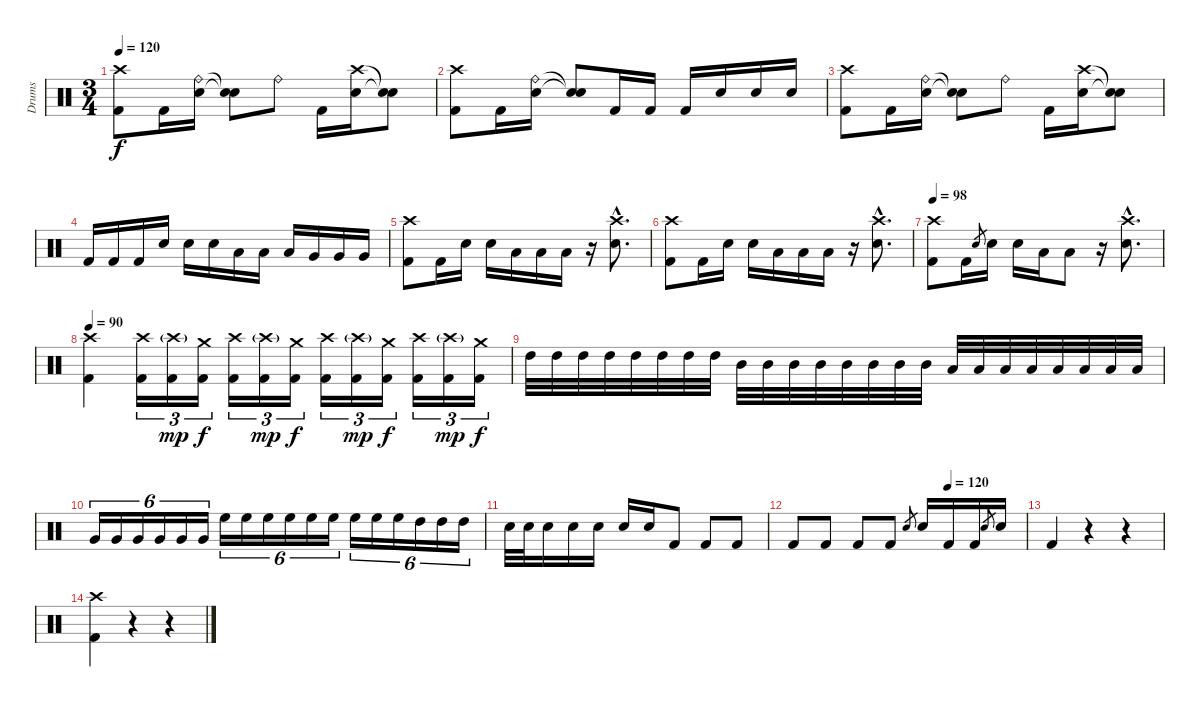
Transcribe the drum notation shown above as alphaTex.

\track ("Drums" "Drums") {instrument percussion}
\staff {score}
\articulation defaults
\ts (3 4)
\tempo 120
\clef neutral
\ks c
("Crash high (hit)" "Kick (hit) 2").8{dy f} "Kick (hit) 2".16 ("Ride (bell)" "Electric Snare (hit)").16 ("Snare (hit)"{t} "Snare (hit)"{t}).8 "Ride (bell)".8 "Kick (hit) 2".16 ("Crash high (hit)" "Electric Snare (hit)").16 ("Snare (hit)"{t} "Snare (hit)"{t}).8 |
("Crash high (hit)" "Kick (hit) 2").8 "Kick (hit) 2".16 ("Ride (bell)" "Electric Snare (hit)").16 ("Snare (hit)"{t} "Snare (hit)"{t}).8 "Kick (hit) 2".16 "Kick (hit) 2".16 "Kick (hit) 2".16 "Electric Snare (hit)".16 "Electric Snare (hit)".16 "Electric Snare (hit)".16 |
("Crash high (hit)" "Kick (hit) 2").8 "Kick (hit) 2".16 ("Ride (bell)" "Electric Snare (hit)").16 ("Snare (hit)"{t} "Snare (hit)"{t}).8 "Ride (bell)".8 "Kick (hit) 2".16 ("Crash high (hit)" "Electric Snare (hit)").16 ("Snare (hit)"{t} "Snare (hit)"{t}).8 |
"Kick (hit) 2".16 "Kick (hit) 2".16 "Kick (hit) 2".16 "Electric Snare (hit)".16 "Electric Snare (hit)".16 "Electric Snare (hit)".16 "Low Tom (hit)".16 "Low Tom (hit)".16 "Low Tom (hit)".16 "Very Low Tom (hit)".16 "Very Low Tom (hit)".16 "Very Low Tom (hit)".16 |
("Crash high (hit)" "Kick (hit) 2").8 "Kick (hit) 2".16 "Electric Snare (hit)".16 "Electric Snare (hit)".16 "Low Tom (hit)".16 "Low Tom (hit)".16 "Low Tom (hit)".16 r.16 ("Crash high (hit)"{hac} "Electric Snare (hit)"{hac}).8{d} |
("Crash high (hit)" "Kick (hit) 2").8 "Kick (hit) 2".16 "Electric Snare (hit)".16 "Electric Snare (hit)".16 "Low Tom (hit)".16 "Low Tom (hit)".16 "Low Tom (hit)".16 r.16 ("Crash high (hit)"{hac} "Electric Snare (hit)"{hac}).8{d} |
\tempo 98
("Crash high (hit)" "Kick (hit) 2").8 "Kick (hit) 2".16 "Electric Snare (hit)".8{gr} "Electric Snare (hit)".16 "Electric Snare (hit)".16 "Low Tom (hit)".16 "Low Tom (hit)".8 r.16 ("Crash high (hit)"{hac} "Electric Snare (hit)"{hac}).8{d} |
\tempo 90
("Crash high (hit)" "Kick (hit) 2").4 ("Crash high (hit)" "Kick (hit) 2").16{tu (3 2)} ("Crash high (hit)"{g} "Kick (hit) 2").16{tu (3 2) dy mp} ("Crash medium (hit)" "Kick (hit) 2").16{tu (3 2) dy f} ("Crash high (hit)" "Kick (hit) 2").16{tu (3 2)} ("Crash high (hit)"{g} "Kick (hit) 2").16{tu (3 2) dy mp} ("Crash medium (hit)" "Kick (hit) 2").16{tu (3 2) dy f} ("Crash high (hit)" "Kick (hit) 2").16{tu (3 2)} ("Crash high (hit)"{g} "Kick (hit) 2").16{tu (3 2) dy mp} ("Crash medium (hit)" "Kick (hit) 2").16{tu (3 2) dy f} ("Crash high (hit)" "Kick (hit) 2").16{tu (3 2)} ("Crash high (hit)"{g} "Kick (hit) 2").16{tu (3 2) dy mp} ("Crash medium (hit)" "Kick (hit) 2").16{tu (3 2) dy f} |
"High Tom (hit)".32 "High Tom (hit)".32 "High Tom (hit)".32 "High Tom (hit)".32 "High Tom (hit)".32 "High Tom (hit)".32 "High Tom (hit)".32 "High Tom (hit)".32 "Mid Tom (hit)".32 "Mid Tom (hit)".32 "Mid Tom (hit)".32 "Mid Tom (hit)".32 "Mid Tom (hit)".32 "Mid Tom (hit)".32 "Mid Tom (hit)".32 "Mid Tom (hit)".32 "Low Tom (hit)".32 "Low Tom (hit)".32 "Low Tom (hit)".32 "Low Tom (hit)".32 "Low Tom (hit)".32 "Low Tom (hit)".32 "Low Tom (hit)".32 "Low Tom (hit)".32 |
"Very Low Tom (hit)".16{tu (6 4)} "Very Low Tom (hit)".16{tu (6 4)} "Very Low Tom (hit)".16{tu (6 4)} "Very Low Tom (hit)".16{tu (6 4)} "Very Low Tom (hit)".16{tu (6 4)} "Very Low Tom (hit)".16{tu (6 4)} "High Floor Tom (hit)".16{tu (6 4)} "High Floor Tom (hit)".16{tu (6 4)} "High Floor Tom (hit)".16{tu (6 4)} "High Floor Tom (hit)".16{tu (6 4)} "High Floor Tom (hit)".16{tu (6 4)} "High Floor Tom (hit)".16{tu (6 4)} "High Floor Tom (hit)".16{tu (6 4)} "High Floor Tom (hit)".16{tu (6 4)} "High Floor Tom (hit)".16{tu (6 4)} "High Tom (hit)".16{tu (6 4)} "High Tom (hit)".16{tu (6 4)} "High Tom (hit)".16{tu (6 4)} |
"Electric Snare (hit)".32 "Electric Snare (hit)".32 "Electric Snare (hit)".16 "Electric Snare (hit)".16 "Electric Snare (hit)".16 "Electric Snare (hit)".16 "Electric Snare (hit)".16 "Kick (hit) 2".8 "Kick (hit) 2".8 "Kick (hit) 2".8 |
\tempo (120 0.6666666666666666)
"Kick (hit) 2".8 "Kick (hit) 2".8 "Kick (hit) 2".8 "Kick (hit) 2".8 "Electric Snare (hit)".8{gr} "Electric Snare (hit)".16 "Kick (hit) 2".16 "Kick (hit) 2".16 "Electric Snare (hit)".8{gr} "Electric Snare (hit)".16 |
"Kick (hit) 2".4 r.4 r.4 |
("Crash high (hit)" "Kick (hit) 2").4 r.4 r.4
